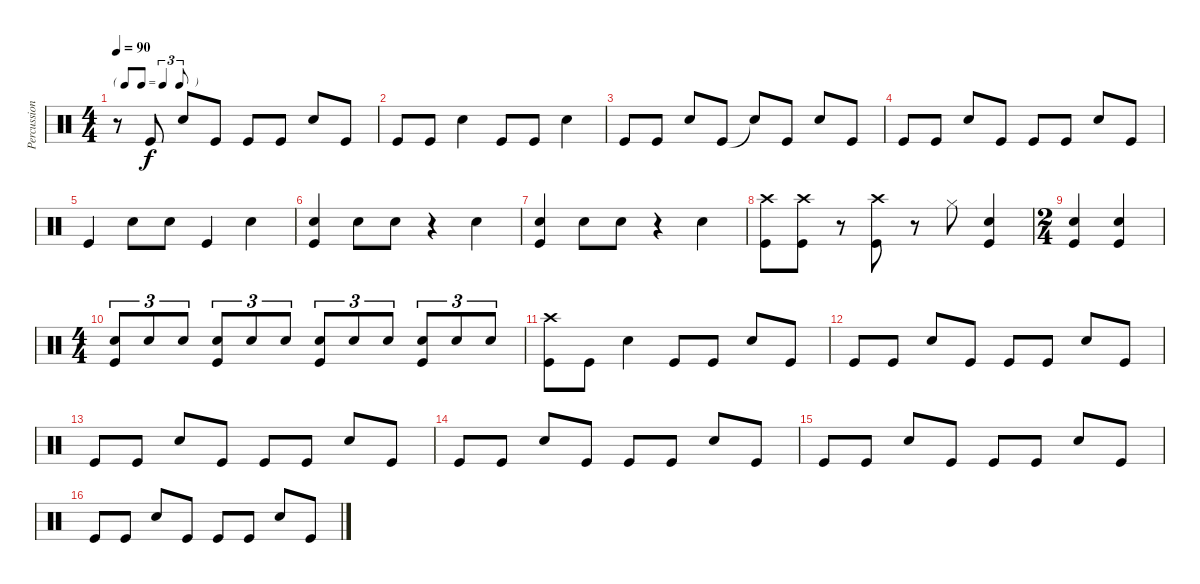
\track ("Percussion" "Percussion") {instrument percussion}
\staff {score}
\articulation defaults
\ts (4 4)
\tf triplet8th
\tempo 90
\clef neutral
\ks c
r.8{dy f} "Kick (hit)".8 "Snare (hit) 2".8 "Kick (hit)".8 "Kick (hit)".8 "Kick (hit)".8 "Snare (hit) 2".8 "Kick (hit)".8 |
"Kick (hit)".8 "Kick (hit)".8 "Snare (hit) 2".4 "Kick (hit)".8 "Kick (hit)".8 "Snare (hit) 2".4 |
"Kick (hit)".8 "Kick (hit)".8 "Snare (hit) 2".8 "Kick (hit)".8 "Snare (hit)"{t}.8 "Kick (hit)".8 "Snare (hit) 2".8 "Kick (hit)".8 |
"Kick (hit)".8 "Kick (hit)".8 "Snare (hit) 2".8 "Kick (hit)".8 "Kick (hit)".8 "Kick (hit)".8 "Snare (hit) 2".8 "Kick (hit)".8 |
"Kick (hit)".4 "Snare (hit) 2".8 "Snare (hit) 2".8 "Kick (hit)".4 "Snare (hit) 2".4 |
("Snare (hit) 2" "Kick (hit)").4 "Snare (hit) 2".8 "Snare (hit) 2".8 r.4 "Snare (hit) 2".4 |
("Snare (hit) 2" "Kick (hit)").4 "Snare (hit) 2".8 "Snare (hit) 2".8 r.4 "Snare (hit) 2".4 |
("Crash high (hit)" "Kick (hit)").8 ("Crash high (hit)" "Kick (hit)").8 r.8 ("Crash high (hit)" "Kick (hit)").8 r.8 "Hi-Hat (closed)".8 ("Snare (hit) 2" "Kick (hit)").4 |
\ts (2 4)
("Snare (hit) 2" "Kick (hit)").4 ("Snare (hit) 2" "Kick (hit)").4 |
\ts (4 4)
("Snare (hit) 2" "Kick (hit)").8{tu (3 2)} "Snare (hit) 2".8{tu (3 2)} "Snare (hit) 2".8{tu (3 2)} ("Snare (hit) 2" "Kick (hit)").8{tu (3 2)} "Snare (hit) 2".8{tu (3 2)} "Snare (hit) 2".8{tu (3 2)} ("Snare (hit) 2" "Kick (hit)").8{tu (3 2)} "Snare (hit) 2".8{tu (3 2)} "Snare (hit) 2".8{tu (3 2)} ("Snare (hit) 2" "Kick (hit)").8{tu (3 2)} "Snare (hit) 2".8{tu (3 2)} "Snare (hit) 2".8{tu (3 2)} |
("Crash high (hit)" "Kick (hit)").8 "Kick (hit)".8 "Snare (hit) 2".4 "Kick (hit)".8 "Kick (hit)".8 "Snare (hit) 2".8 "Kick (hit)".8 |
"Kick (hit)".8 "Kick (hit)".8 "Snare (hit) 2".8 "Kick (hit)".8 "Kick (hit)".8 "Kick (hit)".8 "Snare (hit) 2".8 "Kick (hit)".8 |
"Kick (hit)".8 "Kick (hit)".8 "Snare (hit) 2".8 "Kick (hit)".8 "Kick (hit)".8 "Kick (hit)".8 "Snare (hit) 2".8 "Kick (hit)".8 |
"Kick (hit)".8 "Kick (hit)".8 "Snare (hit) 2".8 "Kick (hit)".8 "Kick (hit)".8 "Kick (hit)".8 "Snare (hit) 2".8 "Kick (hit)".8 |
"Kick (hit)".8 "Kick (hit)".8 "Snare (hit) 2".8 "Kick (hit)".8 "Kick (hit)".8 "Kick (hit)".8 "Snare (hit) 2".8 "Kick (hit)".8 |
"Kick (hit)".8 "Kick (hit)".8 "Snare (hit) 2".8 "Kick (hit)".8 "Kick (hit)".8 "Kick (hit)".8 "Snare (hit) 2".8 "Kick (hit)".8
